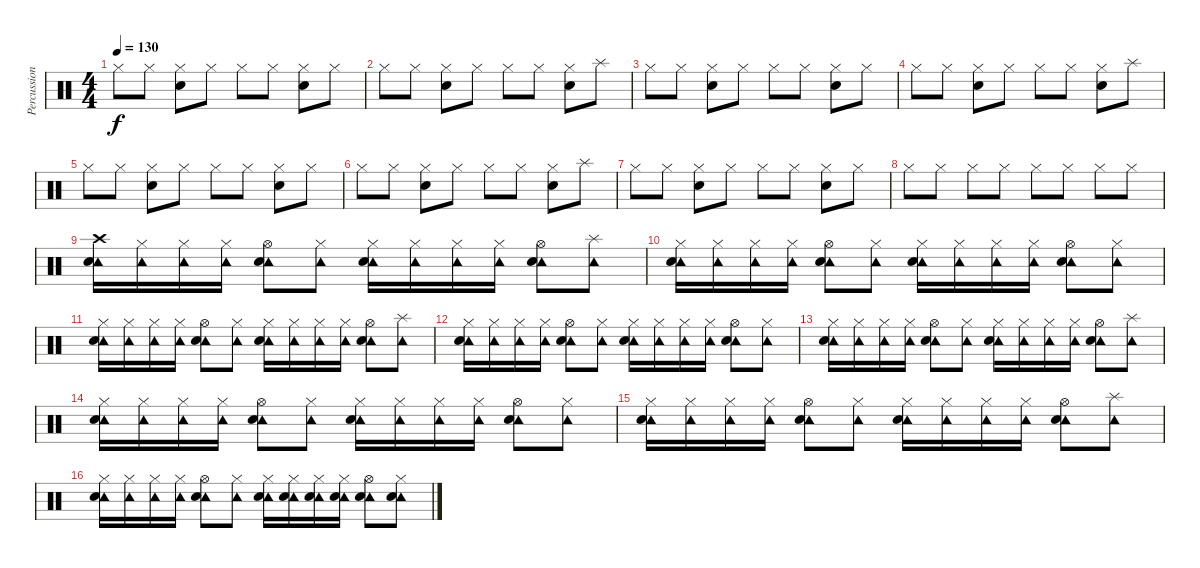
\track ("Percussion" "Percussion") {instrument percussion}
\staff {score}
\articulation defaults
\ts (4 4)
\tempo 130
\clef neutral
\ks c "Hi-Hat (closed)".8{dy f volume 11} "Hi-Hat (closed)".8
("Hi-Hat (closed)" "Electric Snare (hit)").8 "Hi-Hat (closed)".8 "Hi-Hat (closed)".8 "Hi-Hat (closed)".8 ("Hi-Hat (closed)" "Electric Snare (hit)").8 "Hi-Hat (closed)".8 |
"Hi-Hat (closed)".8 "Hi-Hat (closed)".8 ("Hi-Hat (closed)" "Electric Snare (hit)").8 "Hi-Hat (closed)".8 "Hi-Hat (closed)".8 "Hi-Hat (closed)".8 ("Hi-Hat (closed)" "Electric Snare (hit)").8 "Splash (hit)".8 |
"Hi-Hat (closed)".8 "Hi-Hat (closed)".8 ("Hi-Hat (closed)" "Electric Snare (hit)").8 "Hi-Hat (closed)".8 "Hi-Hat (closed)".8 "Hi-Hat (closed)".8 ("Hi-Hat (closed)" "Electric Snare (hit)").8 "Hi-Hat (closed)".8 |
"Hi-Hat (closed)".8 "Hi-Hat (closed)".8 ("Hi-Hat (closed)" "Electric Snare (hit)").8 "Hi-Hat (closed)".8 "Hi-Hat (closed)".8 "Hi-Hat (closed)".8 ("Hi-Hat (closed)" "Electric Snare (hit)").8 "Splash (hit)".8 |
"Hi-Hat (closed)".8 "Hi-Hat (closed)".8 ("Hi-Hat (closed)" "Electric Snare (hit)").8 "Hi-Hat (closed)".8 "Hi-Hat (closed)".8 "Hi-Hat (closed)".8 ("Hi-Hat (closed)" "Electric Snare (hit)").8 "Hi-Hat (closed)".8 |
"Hi-Hat (closed)".8 "Hi-Hat (closed)".8 ("Hi-Hat (closed)" "Electric Snare (hit)").8 "Hi-Hat (closed)".8 "Hi-Hat (closed)".8 "Hi-Hat (closed)".8 ("Hi-Hat (closed)" "Electric Snare (hit)").8 "Splash (hit)".8 |
"Hi-Hat (closed)".8 "Hi-Hat (closed)".8 ("Hi-Hat (closed)" "Electric Snare (hit)").8 "Hi-Hat (closed)".8 "Hi-Hat (closed)".8 "Hi-Hat (closed)".8 ("Hi-Hat (closed)" "Electric Snare (hit)").8 "Hi-Hat (closed)".8 |
"Hi-Hat (closed)".8 "Hi-Hat (closed)".8 "Hi-Hat (closed)".8 "Hi-Hat (closed)".8 "Hi-Hat (closed)".8 "Hi-Hat (closed)".8 "Hi-Hat (closed)".8 "Hi-Hat (closed)".8 |
("Crash high (hit)" "Tambourine (hit)" "Electric Snare (hit)").16{volume 16} ("Hi-Hat (closed)" "Tambourine (hit)").16 ("Hi-Hat (closed)" "Tambourine (hit)").16 ("Hi-Hat (closed)" "Tambourine (hit)").16 ("Hi-Hat (open)" "Tambourine (hit)" "Electric Snare (hit)").8 ("Hi-Hat (closed)" "Tambourine (hit)").8 ("Hi-Hat (closed)" "Tambourine (hit)" "Electric Snare (hit)").16 ("Hi-Hat (closed)" "Tambourine (hit)").16 ("Hi-Hat (closed)" "Tambourine (hit)").16 ("Hi-Hat (closed)" "Tambourine (hit)").16 ("Hi-Hat (open)" "Tambourine (hit)" "Electric Snare (hit)").8 ("Splash (hit)" "Tambourine (hit)").8 |
("Hi-Hat (closed)" "Tambourine (hit)" "Electric Snare (hit)").16 ("Hi-Hat (closed)" "Tambourine (hit)").16 ("Hi-Hat (closed)" "Tambourine (hit)").16 ("Hi-Hat (closed)" "Tambourine (hit)").16 ("Hi-Hat (open)" "Tambourine (hit)" "Electric Snare (hit)").8 ("Hi-Hat (closed)" "Tambourine (hit)").8 ("Hi-Hat (closed)" "Tambourine (hit)" "Electric Snare (hit)").16 ("Hi-Hat (closed)" "Tambourine (hit)").16 ("Hi-Hat (closed)" "Tambourine (hit)").16 ("Hi-Hat (closed)" "Tambourine (hit)").16 ("Hi-Hat (open)" "Tambourine (hit)" "Electric Snare (hit)").8 ("Hi-Hat (closed)" "Tambourine (hit)").8 |
("Hi-Hat (closed)" "Tambourine (hit)" "Electric Snare (hit)").16{volume 16} ("Hi-Hat (closed)" "Tambourine (hit)").16 ("Hi-Hat (closed)" "Tambourine (hit)").16 ("Hi-Hat (closed)" "Tambourine (hit)").16 ("Hi-Hat (open)" "Tambourine (hit)" "Electric Snare (hit)").8 ("Hi-Hat (closed)" "Tambourine (hit)").8 ("Hi-Hat (closed)" "Tambourine (hit)" "Electric Snare (hit)").16 ("Hi-Hat (closed)" "Tambourine (hit)").16 ("Hi-Hat (closed)" "Tambourine (hit)").16 ("Hi-Hat (closed)" "Tambourine (hit)").16 ("Hi-Hat (open)" "Tambourine (hit)" "Electric Snare (hit)").8 ("Splash (hit)" "Tambourine (hit)").8 |
("Hi-Hat (closed)" "Tambourine (hit)" "Electric Snare (hit)").16 ("Hi-Hat (closed)" "Tambourine (hit)").16 ("Hi-Hat (closed)" "Tambourine (hit)").16 ("Hi-Hat (closed)" "Tambourine (hit)").16 ("Hi-Hat (open)" "Tambourine (hit)" "Electric Snare (hit)").8 ("Hi-Hat (closed)" "Tambourine (hit)").8 ("Hi-Hat (closed)" "Tambourine (hit)" "Electric Snare (hit)").16 ("Hi-Hat (closed)" "Tambourine (hit)").16 ("Hi-Hat (closed)" "Tambourine (hit)").16 ("Hi-Hat (closed)" "Tambourine (hit)").16 ("Hi-Hat (open)" "Tambourine (hit)" "Electric Snare (hit)").8 ("Hi-Hat (closed)" "Tambourine (hit)").8 |
("Hi-Hat (closed)" "Tambourine (hit)" "Electric Snare (hit)").16{volume 16} ("Hi-Hat (closed)" "Tambourine (hit)").16 ("Hi-Hat (closed)" "Tambourine (hit)").16 ("Hi-Hat (closed)" "Tambourine (hit)").16 ("Hi-Hat (open)" "Tambourine (hit)" "Electric Snare (hit)").8 ("Hi-Hat (closed)" "Tambourine (hit)").8 ("Hi-Hat (closed)" "Tambourine (hit)" "Electric Snare (hit)").16 ("Hi-Hat (closed)" "Tambourine (hit)").16 ("Hi-Hat (closed)" "Tambourine (hit)").16 ("Hi-Hat (closed)" "Tambourine (hit)").16 ("Hi-Hat (open)" "Tambourine (hit)" "Electric Snare (hit)").8 ("Splash (hit)" "Tambourine (hit)").8 |
("Hi-Hat (closed)" "Tambourine (hit)" "Electric Snare (hit)").16 ("Hi-Hat (closed)" "Tambourine (hit)").16 ("Hi-Hat (closed)" "Tambourine (hit)").16 ("Hi-Hat (closed)" "Tambourine (hit)").16 ("Hi-Hat (open)" "Tambourine (hit)" "Electric Snare (hit)").8 ("Hi-Hat (closed)" "Tambourine (hit)").8 ("Hi-Hat (closed)" "Tambourine (hit)" "Electric Snare (hit)").16 ("Hi-Hat (closed)" "Tambourine (hit)").16 ("Hi-Hat (closed)" "Tambourine (hit)").16 ("Hi-Hat (closed)" "Tambourine (hit)").16 ("Hi-Hat (open)" "Tambourine (hit)" "Electric Snare (hit)").8 ("Hi-Hat (closed)" "Tambourine (hit)").8 |
("Hi-Hat (closed)" "Tambourine (hit)" "Electric Snare (hit)").16 ("Hi-Hat (closed)" "Tambourine (hit)").16 ("Hi-Hat (closed)" "Tambourine (hit)").16 ("Hi-Hat (closed)" "Tambourine (hit)").16 ("Hi-Hat (open)" "Tambourine (hit)" "Electric Snare (hit)").8 ("Hi-Hat (closed)" "Tambourine (hit)").8 ("Hi-Hat (closed)" "Tambourine (hit)" "Electric Snare (hit)").16 ("Hi-Hat (closed)" "Tambourine (hit)").16 ("Hi-Hat (closed)" "Tambourine (hit)").16 ("Hi-Hat (closed)" "Tambourine (hit)").16 ("Hi-Hat (open)" "Tambourine (hit)" "Electric Snare (hit)").8 ("Splash (hit)" "Tambourine (hit)").8 |
("Hi-Hat (closed)" "Tambourine (hit)" "Electric Snare (hit)").16 ("Hi-Hat (closed)" "Tambourine (hit)").16 ("Hi-Hat (closed)" "Tambourine (hit)").16 ("Hi-Hat (closed)" "Tambourine (hit)").16 ("Hi-Hat (open)" "Tambourine (hit)" "Electric Snare (hit)").8 ("Hi-Hat (closed)" "Tambourine (hit)").8 ("Hi-Hat (closed)" "Tambourine (hit)" "Electric Snare (hit)").16 ("Hi-Hat (closed)" "Tambourine (hit)" "Electric Snare (hit)").16 ("Hi-Hat (closed)" "Tambourine (hit)" "Electric Snare (hit)").16 ("Hi-Hat (closed)" "Tambourine (hit)" "Electric Snare (hit)").16 ("Hi-Hat (open)" "Tambourine (hit)" "Electric Snare (hit)").8 ("Hi-Hat (closed)" "Tambourine (hit)" "Electric Snare (hit)").8
